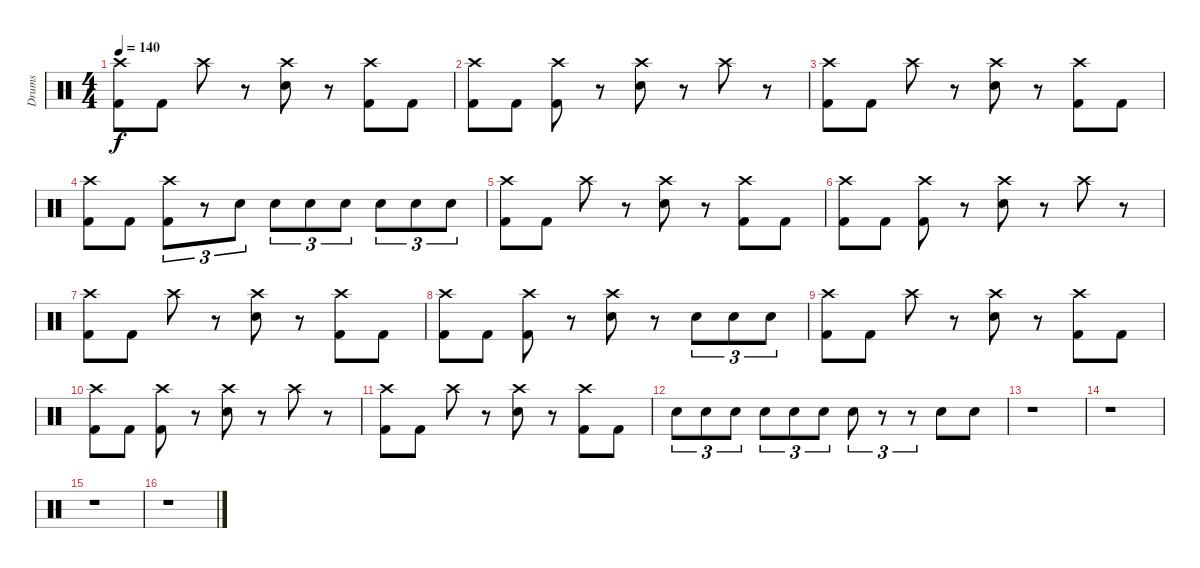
\track ("Drums" "Drums") {instrument percussion}
\staff {score}
\articulation defaults
\ts (4 4)
\tempo 140
\clef neutral
\ks c
("Crash high (hit)" "Kick (hit) 2").8{dy f} "Kick (hit) 2".8 "Crash high (hit)".8 r.8 ("Crash high (hit)" "Electric Snare (hit)").8 r.8 ("Crash high (hit)" "Kick (hit) 2").8 "Kick (hit) 2".8 |
("Crash high (hit)" "Kick (hit) 2").8 "Kick (hit) 2".8 ("Crash high (hit)" "Kick (hit) 2").8 r.8 ("Crash high (hit)" "Electric Snare (hit)").8 r.8 "Crash high (hit)".8 r.8 |
("Crash high (hit)" "Kick (hit) 2").8 "Kick (hit) 2".8 "Crash high (hit)".8 r.8 ("Crash high (hit)" "Electric Snare (hit)").8 r.8 ("Crash high (hit)" "Kick (hit) 2").8 "Kick (hit) 2".8 |
("Crash high (hit)" "Kick (hit) 2").8 "Kick (hit) 2".8 ("Crash high (hit)" "Kick (hit) 2").8{tu (3 2)} r.8{tu (3 2)} "Electric Snare (hit)".8{tu (3 2)} "Electric Snare (hit)".8{tu (3 2)} "Electric Snare (hit)".8{tu (3 2)} "Electric Snare (hit)".8{tu (3 2)} "Electric Snare (hit)".8{tu (3 2)} "Electric Snare (hit)".8{tu (3 2)} "Electric Snare (hit)".8{tu (3 2)} |
("Crash high (hit)" "Kick (hit) 2").8 "Kick (hit) 2".8 "Crash high (hit)".8 r.8 ("Crash high (hit)" "Electric Snare (hit)").8 r.8 ("Crash high (hit)" "Kick (hit) 2").8 "Kick (hit) 2".8 |
("Crash high (hit)" "Kick (hit) 2").8 "Kick (hit) 2".8 ("Crash high (hit)" "Kick (hit) 2").8 r.8 ("Crash high (hit)" "Electric Snare (hit)").8 r.8 "Crash high (hit)".8 r.8 |
("Crash high (hit)" "Kick (hit) 2").8 "Kick (hit) 2".8 "Crash high (hit)".8 r.8 ("Crash high (hit)" "Electric Snare (hit)").8 r.8 ("Crash high (hit)" "Kick (hit) 2").8 "Kick (hit) 2".8 |
("Crash high (hit)" "Kick (hit) 2").8 "Kick (hit) 2".8 ("Crash high (hit)" "Kick (hit) 2").8 r.8 ("Crash high (hit)" "Electric Snare (hit)").8 r.8 "Electric Snare (hit)".8{tu (3 2)} "Electric Snare (hit)".8{tu (3 2)} "Electric Snare (hit)".8{tu (3 2)} |
("Crash high (hit)" "Kick (hit) 2").8 "Kick (hit) 2".8 "Crash high (hit)".8 r.8 ("Crash high (hit)" "Electric Snare (hit)").8 r.8 ("Crash high (hit)" "Kick (hit) 2").8 "Kick (hit) 2".8 |
("Crash high (hit)" "Kick (hit) 2").8 "Kick (hit) 2".8 ("Crash high (hit)" "Kick (hit) 2").8 r.8 ("Crash high (hit)" "Electric Snare (hit)").8 r.8 "Crash high (hit)".8 r.8 |
("Crash high (hit)" "Kick (hit) 2").8 "Kick (hit) 2".8 "Crash high (hit)".8 r.8 ("Crash high (hit)" "Electric Snare (hit)").8 r.8 ("Crash high (hit)" "Kick (hit) 2").8 "Kick (hit) 2".8 |
"Electric Snare (hit)".8{tu (3 2)} "Electric Snare (hit)".8{tu (3 2)} "Electric Snare (hit)".8{tu (3 2)} "Electric Snare (hit)".8{tu (3 2)} "Electric Snare (hit)".8{tu (3 2)} "Electric Snare (hit)".8{tu (3 2)} "Electric Snare (hit)".8{tu (3 2)} r.8{tu (3 2)} r.8{tu (3 2)} "Electric Snare (hit)".8 "Electric Snare (hit)".8 |
r.1 |
r.1 |
r.1 |
r.1
